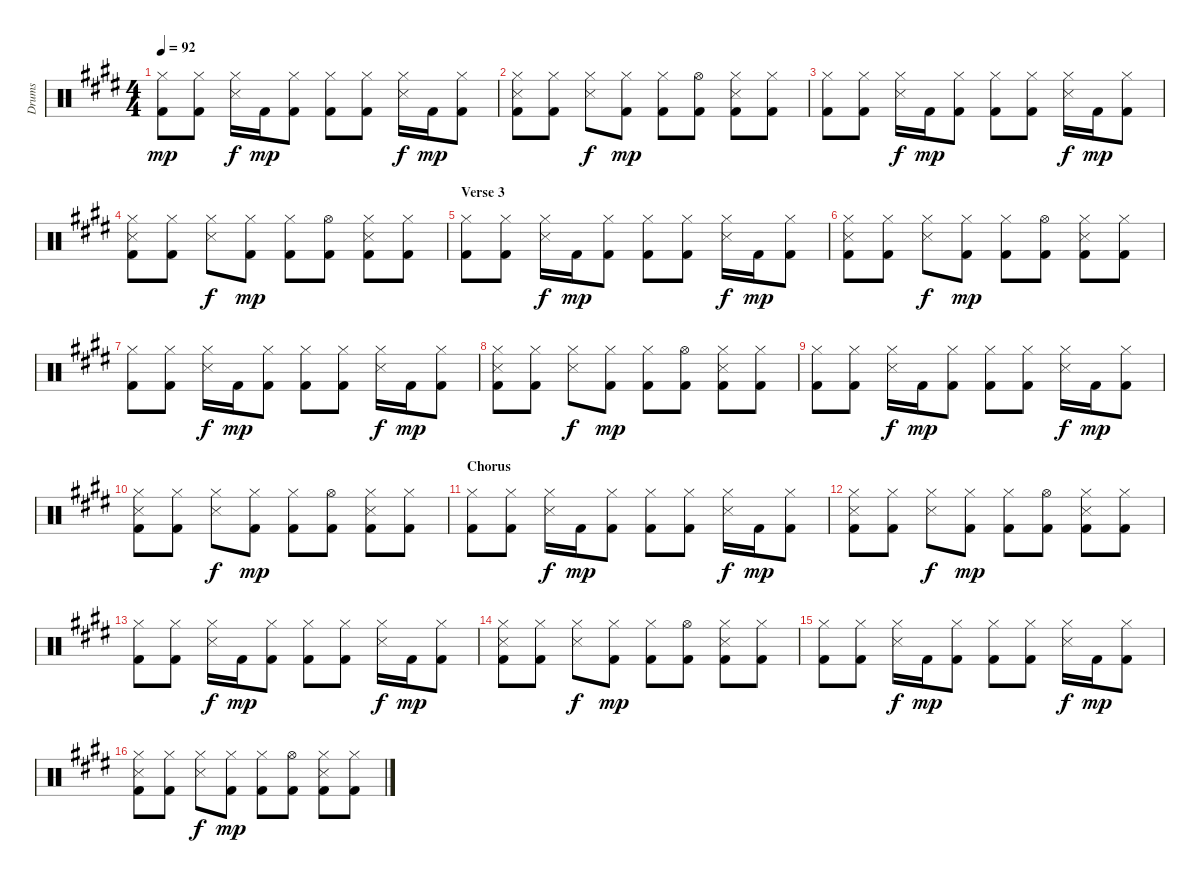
\track ("Drums" "Drums") {instrument percussion}
\staff {score}
\articulation defaults
\ts (4 4)
\tempo 92
\clef neutral
\ks e
("Hi-Hat (closed)" "Kick (hit) 2").8{dy mp} ("Hi-Hat (closed)" "Kick (hit) 2").8 ("Hi-Hat (closed)" "Snare (side stick) 3").16{dy f} "Kick (hit) 2".16{dy mp} ("Hi-Hat (closed)" "Kick (hit) 2").8 ("Hi-Hat (closed)" "Kick (hit) 2").8 ("Hi-Hat (closed)" "Kick (hit) 2").8 ("Hi-Hat (closed)" "Snare (side stick) 3").16{dy f} "Kick (hit) 2".16{dy mp} ("Hi-Hat (closed)" "Kick (hit) 2").8 |
("Hi-Hat (closed)" "Snare (side stick) 3" "Kick (hit) 2").8 ("Hi-Hat (closed)" "Kick (hit) 2").8 ("Hi-Hat (closed)" "Snare (side stick) 3").8{dy f} ("Hi-Hat (closed)" "Kick (hit) 2").8{dy mp} ("Hi-Hat (closed)" "Kick (hit) 2").8 ("Hi-Hat (open)" "Kick (hit) 2").8 ("Hi-Hat (closed)" "Snare (side stick) 3" "Kick (hit) 2").8 ("Hi-Hat (closed)" "Kick (hit) 2").8 |
("Hi-Hat (closed)" "Kick (hit) 2").8 ("Hi-Hat (closed)" "Kick (hit) 2").8 ("Hi-Hat (closed)" "Snare (side stick) 3").16{dy f} "Kick (hit) 2".16{dy mp} ("Hi-Hat (closed)" "Kick (hit) 2").8 ("Hi-Hat (closed)" "Kick (hit) 2").8 ("Hi-Hat (closed)" "Kick (hit) 2").8 ("Hi-Hat (closed)" "Snare (side stick) 3").16{dy f} "Kick (hit) 2".16{dy mp} ("Hi-Hat (closed)" "Kick (hit) 2").8 |
("Hi-Hat (closed)" "Snare (side stick) 3" "Kick (hit) 2").8 ("Hi-Hat (closed)" "Kick (hit) 2").8 ("Hi-Hat (closed)" "Snare (side stick) 3").8{dy f} ("Hi-Hat (closed)" "Kick (hit) 2").8{dy mp} ("Hi-Hat (closed)" "Kick (hit) 2").8 ("Hi-Hat (open)" "Kick (hit) 2").8 ("Hi-Hat (closed)" "Snare (side stick) 3" "Kick (hit) 2").8 ("Hi-Hat (closed)" "Kick (hit) 2").8 |
\section ("" "Verse 3")
("Hi-Hat (closed)" "Kick (hit) 2").8 ("Hi-Hat (closed)" "Kick (hit) 2").8 ("Hi-Hat (closed)" "Snare (side stick) 3").16{dy f} "Kick (hit) 2".16{dy mp} ("Hi-Hat (closed)" "Kick (hit) 2").8 ("Hi-Hat (closed)" "Kick (hit) 2").8 ("Hi-Hat (closed)" "Kick (hit) 2").8 ("Hi-Hat (closed)" "Snare (side stick) 3").16{dy f} "Kick (hit) 2".16{dy mp} ("Hi-Hat (closed)" "Kick (hit) 2").8 |
("Hi-Hat (closed)" "Snare (side stick) 3" "Kick (hit) 2").8 ("Hi-Hat (closed)" "Kick (hit) 2").8 ("Hi-Hat (closed)" "Snare (side stick) 3").8{dy f} ("Hi-Hat (closed)" "Kick (hit) 2").8{dy mp} ("Hi-Hat (closed)" "Kick (hit) 2").8 ("Hi-Hat (open)" "Kick (hit) 2").8 ("Hi-Hat (closed)" "Snare (side stick) 3" "Kick (hit) 2").8 ("Hi-Hat (closed)" "Kick (hit) 2").8 |
("Hi-Hat (closed)" "Kick (hit) 2").8 ("Hi-Hat (closed)" "Kick (hit) 2").8 ("Hi-Hat (closed)" "Snare (side stick) 3").16{dy f} "Kick (hit) 2".16{dy mp} ("Hi-Hat (closed)" "Kick (hit) 2").8 ("Hi-Hat (closed)" "Kick (hit) 2").8 ("Hi-Hat (closed)" "Kick (hit) 2").8 ("Hi-Hat (closed)" "Snare (side stick) 3").16{dy f} "Kick (hit) 2".16{dy mp} ("Hi-Hat (closed)" "Kick (hit) 2").8 |
("Hi-Hat (closed)" "Snare (side stick) 3" "Kick (hit) 2").8 ("Hi-Hat (closed)" "Kick (hit) 2").8 ("Hi-Hat (closed)" "Snare (side stick) 3").8{dy f} ("Hi-Hat (closed)" "Kick (hit) 2").8{dy mp} ("Hi-Hat (closed)" "Kick (hit) 2").8 ("Hi-Hat (open)" "Kick (hit) 2").8 ("Hi-Hat (closed)" "Snare (side stick) 3" "Kick (hit) 2").8 ("Hi-Hat (closed)" "Kick (hit) 2").8 |
("Hi-Hat (closed)" "Kick (hit) 2").8 ("Hi-Hat (closed)" "Kick (hit) 2").8 ("Hi-Hat (closed)" "Snare (side stick) 3").16{dy f} "Kick (hit) 2".16{dy mp} ("Hi-Hat (closed)" "Kick (hit) 2").8 ("Hi-Hat (closed)" "Kick (hit) 2").8 ("Hi-Hat (closed)" "Kick (hit) 2").8 ("Hi-Hat (closed)" "Snare (side stick) 3").16{dy f} "Kick (hit) 2".16{dy mp} ("Hi-Hat (closed)" "Kick (hit) 2").8 |
("Hi-Hat (closed)" "Snare (side stick) 3" "Kick (hit) 2").8 ("Hi-Hat (closed)" "Kick (hit) 2").8 ("Hi-Hat (closed)" "Snare (side stick) 3").8{dy f} ("Hi-Hat (closed)" "Kick (hit) 2").8{dy mp} ("Hi-Hat (closed)" "Kick (hit) 2").8 ("Hi-Hat (open)" "Kick (hit) 2").8 ("Hi-Hat (closed)" "Snare (side stick) 3" "Kick (hit) 2").8 ("Hi-Hat (closed)" "Kick (hit) 2").8 |
\section ("" "Chorus")
("Hi-Hat (closed)" "Kick (hit) 2").8 ("Hi-Hat (closed)" "Kick (hit) 2").8 ("Hi-Hat (closed)" "Snare (side stick) 3").16{dy f} "Kick (hit) 2".16{dy mp} ("Hi-Hat (closed)" "Kick (hit) 2").8 ("Hi-Hat (closed)" "Kick (hit) 2").8 ("Hi-Hat (closed)" "Kick (hit) 2").8 ("Hi-Hat (closed)" "Snare (side stick) 3").16{dy f} "Kick (hit) 2".16{dy mp} ("Hi-Hat (closed)" "Kick (hit) 2").8 |
("Hi-Hat (closed)" "Snare (side stick) 3" "Kick (hit) 2").8 ("Hi-Hat (closed)" "Kick (hit) 2").8 ("Hi-Hat (closed)" "Snare (side stick) 3").8{dy f} ("Hi-Hat (closed)" "Kick (hit) 2").8{dy mp} ("Hi-Hat (closed)" "Kick (hit) 2").8 ("Hi-Hat (open)" "Kick (hit) 2").8 ("Hi-Hat (closed)" "Snare (side stick) 3" "Kick (hit) 2").8 ("Hi-Hat (closed)" "Kick (hit) 2").8 |
("Hi-Hat (closed)" "Kick (hit) 2").8 ("Hi-Hat (closed)" "Kick (hit) 2").8 ("Hi-Hat (closed)" "Snare (side stick) 3").16{dy f} "Kick (hit) 2".16{dy mp} ("Hi-Hat (closed)" "Kick (hit) 2").8 ("Hi-Hat (closed)" "Kick (hit) 2").8 ("Hi-Hat (closed)" "Kick (hit) 2").8 ("Hi-Hat (closed)" "Snare (side stick) 3").16{dy f} "Kick (hit) 2".16{dy mp} ("Hi-Hat (closed)" "Kick (hit) 2").8 |
("Hi-Hat (closed)" "Snare (side stick) 3" "Kick (hit) 2").8 ("Hi-Hat (closed)" "Kick (hit) 2").8 ("Hi-Hat (closed)" "Snare (side stick) 3").8{dy f} ("Hi-Hat (closed)" "Kick (hit) 2").8{dy mp} ("Hi-Hat (closed)" "Kick (hit) 2").8 ("Hi-Hat (open)" "Kick (hit) 2").8 ("Hi-Hat (closed)" "Snare (side stick) 3" "Kick (hit) 2").8 ("Hi-Hat (closed)" "Kick (hit) 2").8 |
("Hi-Hat (closed)" "Kick (hit) 2").8 ("Hi-Hat (closed)" "Kick (hit) 2").8 ("Hi-Hat (closed)" "Snare (side stick) 3").16{dy f} "Kick (hit) 2".16{dy mp} ("Hi-Hat (closed)" "Kick (hit) 2").8 ("Hi-Hat (closed)" "Kick (hit) 2").8 ("Hi-Hat (closed)" "Kick (hit) 2").8 ("Hi-Hat (closed)" "Snare (side stick) 3").16{dy f} "Kick (hit) 2".16{dy mp} ("Hi-Hat (closed)" "Kick (hit) 2").8 |
("Hi-Hat (closed)" "Snare (side stick) 3" "Kick (hit) 2").8 ("Hi-Hat (closed)" "Kick (hit) 2").8 ("Hi-Hat (closed)" "Snare (side stick) 3").8{dy f} ("Hi-Hat (closed)" "Kick (hit) 2").8{dy mp} ("Hi-Hat (closed)" "Kick (hit) 2").8 ("Hi-Hat (open)" "Kick (hit) 2").8 ("Hi-Hat (closed)" "Snare (side stick) 3" "Kick (hit) 2").8 ("Hi-Hat (closed)" "Kick (hit) 2").8
